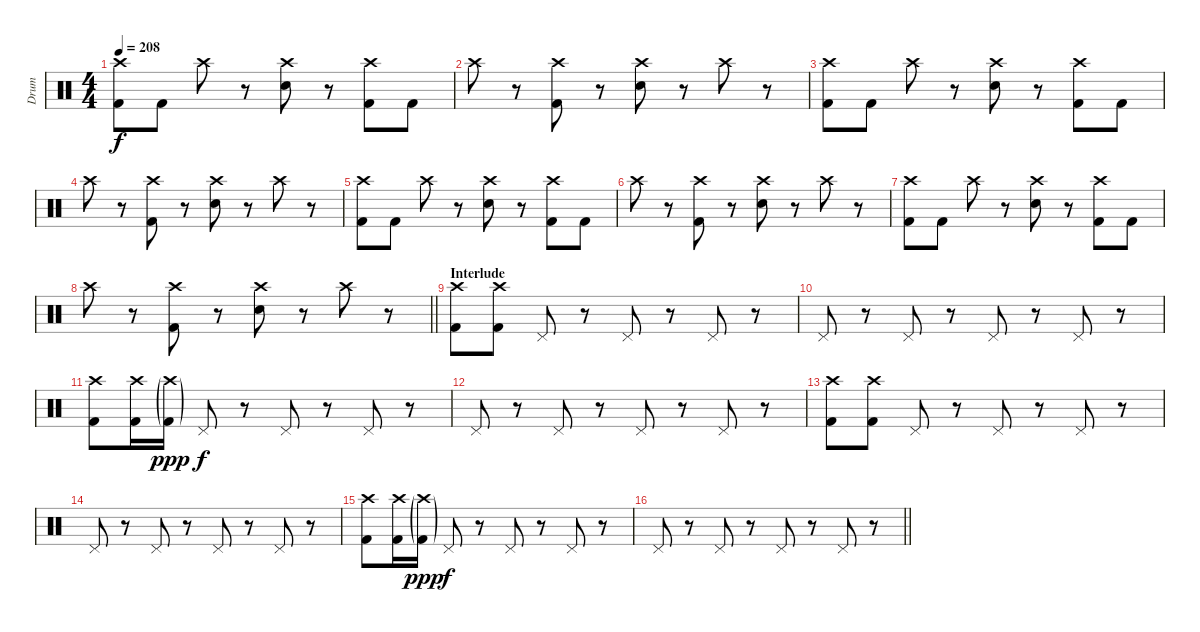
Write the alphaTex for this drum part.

\track ("Drum" "Drum") {instrument percussion}
\staff {score}
\articulation defaults
\ts (4 4)
\tempo 208
\clef neutral
\ks c
("Crash high (hit)" "Kick (hit) 2").8{dy f} "Kick (hit) 2".8 "Crash high (hit)".8 r.8 ("Crash high (hit)" "Electric Snare (hit)").8 r.8 ("Crash high (hit)" "Kick (hit) 2").8 "Kick (hit) 2".8 |
"Crash high (hit)".8 r.8 ("Crash high (hit)" "Kick (hit) 2").8 r.8 ("Crash high (hit)" "Electric Snare (hit)").8 r.8 "Crash high (hit)".8 r.8 |
("Crash high (hit)" "Kick (hit) 2").8 "Kick (hit) 2".8 "Crash high (hit)".8 r.8 ("Crash high (hit)" "Electric Snare (hit)").8 r.8 ("Crash high (hit)" "Kick (hit) 2").8 "Kick (hit) 2".8 |
"Crash high (hit)".8 r.8 ("Crash high (hit)" "Kick (hit) 2").8 r.8 ("Crash high (hit)" "Electric Snare (hit)").8 r.8 "Crash high (hit)".8 r.8 |
("Crash high (hit)" "Kick (hit) 2").8 "Kick (hit) 2".8 "Crash high (hit)".8 r.8 ("Crash high (hit)" "Electric Snare (hit)").8 r.8 ("Crash high (hit)" "Kick (hit) 2").8 "Kick (hit) 2".8 |
"Crash high (hit)".8 r.8 ("Crash high (hit)" "Kick (hit) 2").8 r.8 ("Crash high (hit)" "Electric Snare (hit)").8 r.8 "Crash high (hit)".8 r.8 |
("Crash high (hit)" "Kick (hit) 2").8 "Kick (hit) 2".8 "Crash high (hit)".8 r.8 ("Crash high (hit)" "Electric Snare (hit)").8 r.8 ("Crash high (hit)" "Kick (hit) 2").8 "Kick (hit) 2".8 |
\barLineRight lightlight "Crash high (hit)".8
r.8 ("Crash high (hit)" "Kick (hit) 2").8 r.8 ("Crash high (hit)" "Electric Snare (hit)").8 r.8 "Crash high (hit)".8 r.8 |
\section ("" "Interlude")
("Crash high (hit)" "Kick (hit) 2").8 ("Crash high (hit)" "Kick (hit) 2").8 "Pedal Hi-Hat (hit)".8 r.8 "Pedal Hi-Hat (hit)".8 r.8 "Pedal Hi-Hat (hit)".8 r.8 |
"Pedal Hi-Hat (hit)".8 r.8 "Pedal Hi-Hat (hit)".8 r.8 "Pedal Hi-Hat (hit)".8 r.8 "Pedal Hi-Hat (hit)".8 r.8 |
("Crash high (hit)" "Kick (hit) 2").8 ("Crash high (hit)" "Kick (hit) 2").16 ("Crash high (hit)"{g} "Kick (hit) 2"{g}).16{dy ppp} "Pedal Hi-Hat (hit)".8{dy f} r.8 "Pedal Hi-Hat (hit)".8 r.8 "Pedal Hi-Hat (hit)".8 r.8 |
"Pedal Hi-Hat (hit)".8 r.8 "Pedal Hi-Hat (hit)".8 r.8 "Pedal Hi-Hat (hit)".8 r.8 "Pedal Hi-Hat (hit)".8 r.8 |
("Crash high (hit)" "Kick (hit) 2").8 ("Crash high (hit)" "Kick (hit) 2").8 "Pedal Hi-Hat (hit)".8 r.8 "Pedal Hi-Hat (hit)".8 r.8 "Pedal Hi-Hat (hit)".8 r.8 |
"Pedal Hi-Hat (hit)".8 r.8 "Pedal Hi-Hat (hit)".8 r.8 "Pedal Hi-Hat (hit)".8 r.8 "Pedal Hi-Hat (hit)".8 r.8 |
("Crash high (hit)" "Kick (hit) 2").8 ("Crash high (hit)" "Kick (hit) 2").16 ("Crash high (hit)"{g} "Kick (hit) 2"{g}).16{dy ppp} "Pedal Hi-Hat (hit)".8{dy f} r.8 "Pedal Hi-Hat (hit)".8 r.8 "Pedal Hi-Hat (hit)".8 r.8 |
\barLineRight lightlight "Pedal Hi-Hat (hit)".8
r.8 "Pedal Hi-Hat (hit)".8 r.8 "Pedal Hi-Hat (hit)".8 r.8 "Pedal Hi-Hat (hit)".8 r.8
